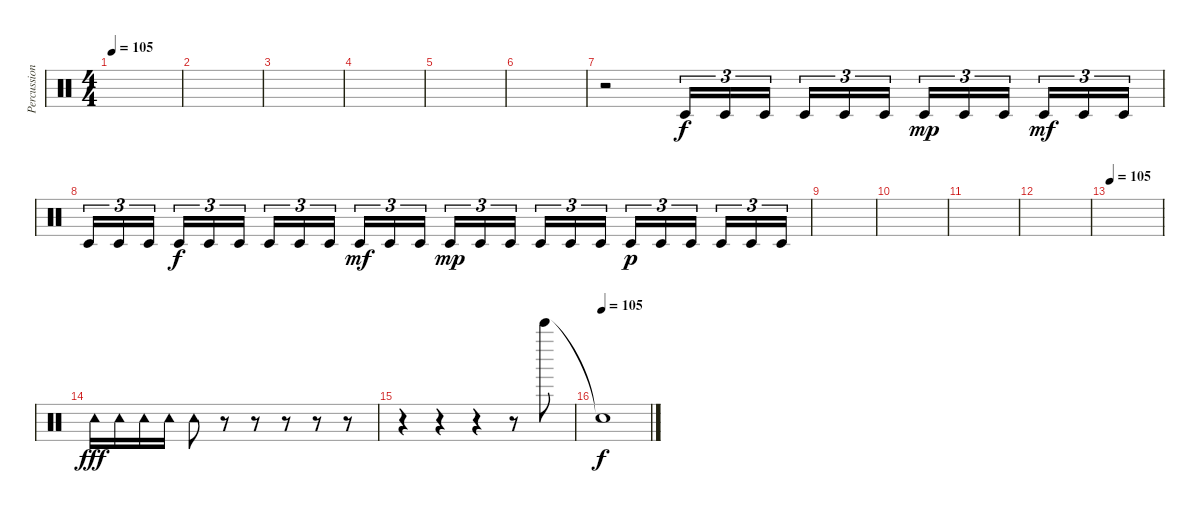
\track ("Percussion" "Percussion") {instrument percussion}
\staff {score}
\articulation defaults
\ts (4 4)
\tempo 105
\clef neutral
\ks c
|
|
|
|
|
\ks aminor
|
r.2 "Timbale low (hit)".16{tu (3 2)} "Timbale low (hit)".16{tu (3 2)} "Timbale low (hit)".16{tu (3 2) beam splitsecondary} "Timbale low (hit)".16{tu (3 2)} "Timbale low (hit)".16{tu (3 2)} "Timbale low (hit)".16{tu (3 2)} "Timbale low (hit)".16{tu (3 2) dy mp} "Timbale low (hit)".16{tu (3 2)} "Timbale low (hit)".16{tu (3 2) beam splitsecondary} "Timbale low (hit)".16{tu (3 2) dy mf} "Timbale low (hit)".16{tu (3 2)} "Timbale low (hit)".16{tu (3 2)} |
\ks c "Timbale low (hit)".16{tu (3 2)} "Timbale low (hit)".16{tu (3 2)} "Timbale low (hit)".16{tu (3 2) beam splitsecondary} "Timbale low (hit)".16{tu (3 2) dy f} "Timbale low (hit)".16{tu (3 2)} "Timbale low (hit)".16{tu (3 2)} "Timbale low (hit)".16{tu (3 2)} "Timbale low (hit)".16{tu (3 2)} "Timbale low (hit)".16{tu (3 2) beam splitsecondary} "Timbale low (hit)".16{tu (3 2) dy mf} "Timbale low (hit)".16{tu (3 2)} "Timbale low (hit)".16{tu (3 2)} "Timbale low (hit)".16{tu (3 2) dy mp} "Timbale low (hit)".16{tu (3 2)} "Timbale low (hit)".16{tu (3 2) beam splitsecondary} "Timbale low (hit)".16{tu (3 2)} "Timbale low (hit)".16{tu (3 2)} "Timbale low (hit)".16{tu (3 2)} "Timbale low (hit)".16{tu (3 2) dy p} "Timbale low (hit)".16{tu (3 2)} "Timbale low (hit)".16{tu (3 2) beam splitsecondary} "Timbale low (hit)".16{tu (3 2)} "Timbale low (hit)".16{tu (3 2)} "Timbale low (hit)".16{tu (3 2)}
|
|
\ks aminor
|
|
\ks c
|
\tempo 105
|
\ks aminor "Tambourine (hit)".16{dy fff} "Tambourine (hit)".16 "Tambourine (hit)".16 "Tambourine (hit)".16 "Tambourine (hit)".8
r.8 r.8 r.8 r.8 r.8 |
r.4 r.4 r.4 r.8 "Bell Tree (hit)".8 |
\tempo 105
\ks c "Snare (hit)"{t}.1{dy f}
